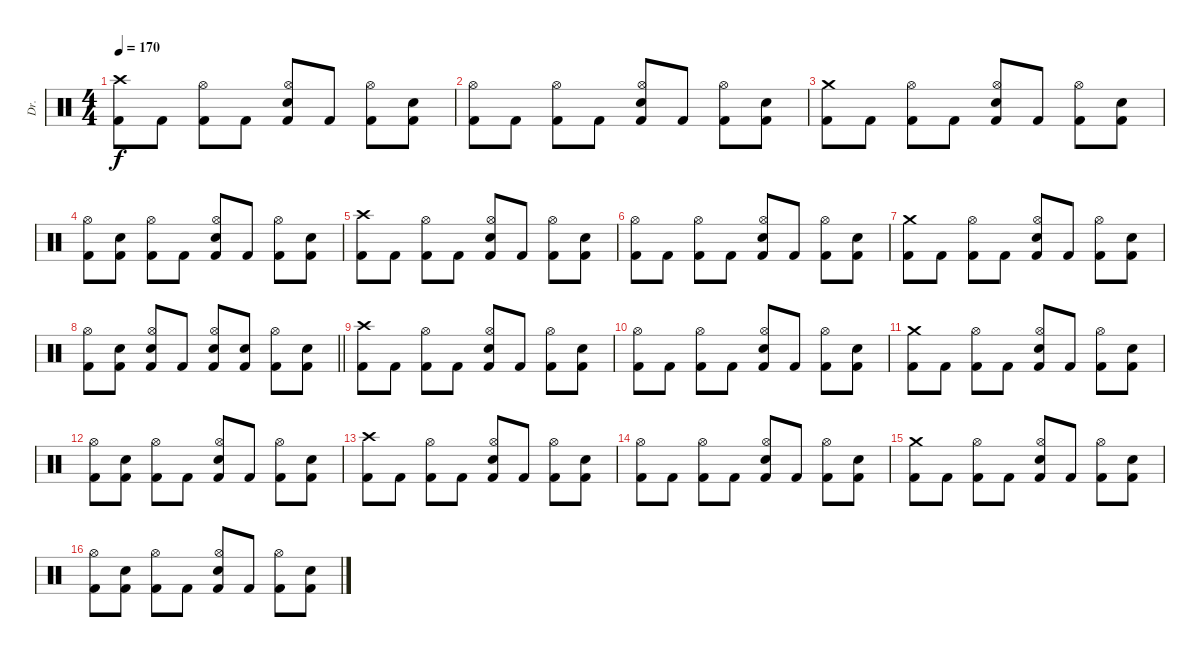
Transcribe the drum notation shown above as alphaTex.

\track ("Dr." "Dr.") {instrument percussion}
\staff {score}
\articulation defaults
\ts (4 4)
\tempo 170
\clef neutral
\ks c
("Crash high (hit)" "Kick (hit) 2").8{dy f} "Kick (hit) 2".8 ("Hi-Hat (open)" "Kick (hit) 2").8 "Kick (hit) 2".8 ("Hi-Hat (open)" "Electric Snare (hit)" "Kick (hit) 2").8 "Kick (hit) 2".8 ("Hi-Hat (open)" "Kick (hit) 2").8 ("Electric Snare (hit)" "Kick (hit) 2").8 |
("Hi-Hat (open)" "Kick (hit) 2").8 "Kick (hit) 2".8 ("Hi-Hat (open)" "Kick (hit) 2").8 "Kick (hit) 2".8 ("Hi-Hat (open)" "Electric Snare (hit)" "Kick (hit) 2").8 "Kick (hit) 2".8 ("Hi-Hat (open)" "Kick (hit) 2").8 ("Electric Snare (hit)" "Kick (hit) 2").8 |
("Crash medium (hit)" "Kick (hit) 2").8 "Kick (hit) 2".8 ("Hi-Hat (open)" "Kick (hit) 2").8 "Kick (hit) 2".8 ("Hi-Hat (open)" "Electric Snare (hit)" "Kick (hit) 2").8 "Kick (hit) 2".8 ("Hi-Hat (open)" "Kick (hit) 2").8 ("Electric Snare (hit)" "Kick (hit) 2").8 |
("Hi-Hat (open)" "Kick (hit) 2").8 ("Electric Snare (hit)" "Kick (hit) 2").8 ("Hi-Hat (open)" "Kick (hit) 2").8 "Kick (hit) 2".8 ("Hi-Hat (open)" "Electric Snare (hit)" "Kick (hit) 2").8 "Kick (hit) 2".8 ("Hi-Hat (open)" "Kick (hit) 2").8 ("Electric Snare (hit)" "Kick (hit) 2").8 |
("Crash high (hit)" "Kick (hit) 2").8 "Kick (hit) 2".8 ("Hi-Hat (open)" "Kick (hit) 2").8 "Kick (hit) 2".8 ("Hi-Hat (open)" "Electric Snare (hit)" "Kick (hit) 2").8 "Kick (hit) 2".8 ("Hi-Hat (open)" "Kick (hit) 2").8 ("Electric Snare (hit)" "Kick (hit) 2").8 |
("Hi-Hat (open)" "Kick (hit) 2").8 "Kick (hit) 2".8 ("Hi-Hat (open)" "Kick (hit) 2").8 "Kick (hit) 2".8 ("Hi-Hat (open)" "Electric Snare (hit)" "Kick (hit) 2").8 "Kick (hit) 2".8 ("Hi-Hat (open)" "Kick (hit) 2").8 ("Electric Snare (hit)" "Kick (hit) 2").8 |
("Crash medium (hit)" "Kick (hit) 2").8 "Kick (hit) 2".8 ("Hi-Hat (open)" "Kick (hit) 2").8 "Kick (hit) 2".8 ("Hi-Hat (open)" "Electric Snare (hit)" "Kick (hit) 2").8 "Kick (hit) 2".8 ("Hi-Hat (open)" "Kick (hit) 2").8 ("Electric Snare (hit)" "Kick (hit) 2").8 |
\barLineRight lightlight
("Hi-Hat (open)" "Kick (hit) 2").8 ("Electric Snare (hit)" "Kick (hit) 2").8 ("Hi-Hat (open)" "Electric Snare (hit)" "Kick (hit) 2").8 "Kick (hit) 2".8 ("Hi-Hat (open)" "Electric Snare (hit)" "Kick (hit) 2").8 ("Electric Snare (hit)" "Kick (hit) 2").8 ("Hi-Hat (open)" "Kick (hit) 2").8 ("Electric Snare (hit)" "Kick (hit) 2").8 |
("Crash high (hit)" "Kick (hit) 2").8 "Kick (hit) 2".8 ("Hi-Hat (open)" "Kick (hit) 2").8 "Kick (hit) 2".8 ("Hi-Hat (open)" "Electric Snare (hit)" "Kick (hit) 2").8 "Kick (hit) 2".8 ("Hi-Hat (open)" "Kick (hit) 2").8 ("Electric Snare (hit)" "Kick (hit) 2").8 |
("Hi-Hat (open)" "Kick (hit) 2").8 "Kick (hit) 2".8 ("Hi-Hat (open)" "Kick (hit) 2").8 "Kick (hit) 2".8 ("Hi-Hat (open)" "Electric Snare (hit)" "Kick (hit) 2").8 "Kick (hit) 2".8 ("Hi-Hat (open)" "Kick (hit) 2").8 ("Electric Snare (hit)" "Kick (hit) 2").8 |
("Crash medium (hit)" "Kick (hit) 2").8 "Kick (hit) 2".8 ("Hi-Hat (open)" "Kick (hit) 2").8 "Kick (hit) 2".8 ("Hi-Hat (open)" "Electric Snare (hit)" "Kick (hit) 2").8 "Kick (hit) 2".8 ("Hi-Hat (open)" "Kick (hit) 2").8 ("Electric Snare (hit)" "Kick (hit) 2").8 |
("Hi-Hat (open)" "Kick (hit) 2").8 ("Electric Snare (hit)" "Kick (hit) 2").8 ("Hi-Hat (open)" "Kick (hit) 2").8 "Kick (hit) 2".8 ("Hi-Hat (open)" "Electric Snare (hit)" "Kick (hit) 2").8 "Kick (hit) 2".8 ("Hi-Hat (open)" "Kick (hit) 2").8 ("Electric Snare (hit)" "Kick (hit) 2").8 |
("Crash high (hit)" "Kick (hit) 2").8 "Kick (hit) 2".8 ("Hi-Hat (open)" "Kick (hit) 2").8 "Kick (hit) 2".8 ("Hi-Hat (open)" "Electric Snare (hit)" "Kick (hit) 2").8 "Kick (hit) 2".8 ("Hi-Hat (open)" "Kick (hit) 2").8 ("Electric Snare (hit)" "Kick (hit) 2").8 |
("Hi-Hat (open)" "Kick (hit) 2").8 "Kick (hit) 2".8 ("Hi-Hat (open)" "Kick (hit) 2").8 "Kick (hit) 2".8 ("Hi-Hat (open)" "Electric Snare (hit)" "Kick (hit) 2").8 "Kick (hit) 2".8 ("Hi-Hat (open)" "Kick (hit) 2").8 ("Electric Snare (hit)" "Kick (hit) 2").8 |
("Crash medium (hit)" "Kick (hit) 2").8 "Kick (hit) 2".8 ("Hi-Hat (open)" "Kick (hit) 2").8 "Kick (hit) 2".8 ("Hi-Hat (open)" "Electric Snare (hit)" "Kick (hit) 2").8 "Kick (hit) 2".8 ("Hi-Hat (open)" "Kick (hit) 2").8 ("Electric Snare (hit)" "Kick (hit) 2").8 |
("Hi-Hat (open)" "Kick (hit) 2").8 ("Electric Snare (hit)" "Kick (hit) 2").8 ("Hi-Hat (open)" "Kick (hit) 2").8 "Kick (hit) 2".8 ("Hi-Hat (open)" "Electric Snare (hit)" "Kick (hit) 2").8 "Kick (hit) 2".8 ("Hi-Hat (open)" "Kick (hit) 2").8 ("Electric Snare (hit)" "Kick (hit) 2").8
